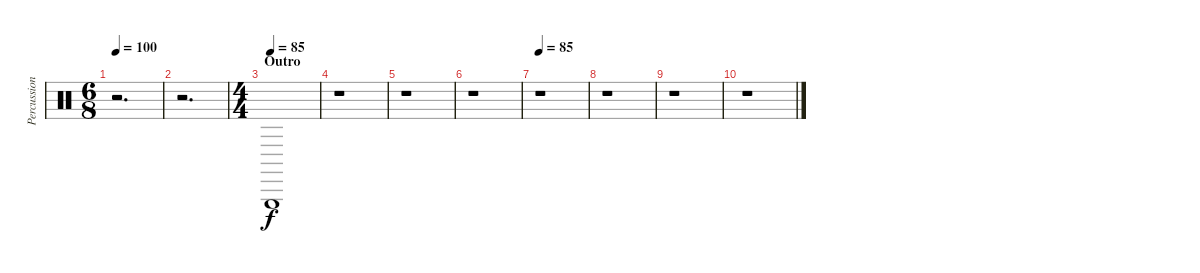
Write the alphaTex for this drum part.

\track ("Percussion" "Percussion") {instrument percussion}
\staff {score}
\articulation defaults
\ts (6 8)
\tempo 100
\clef neutral
\ks c
r.2{d dy mp} |
r.2{d} |
\ts (4 4)
\section ("" "Outro")
\tempo (85)
"Triangle (hit)".1{dy f} |
r.1 |
r.1 |
r.1 |
\tempo 85
r.1 |
r.1 |
r.1 |
r.1
